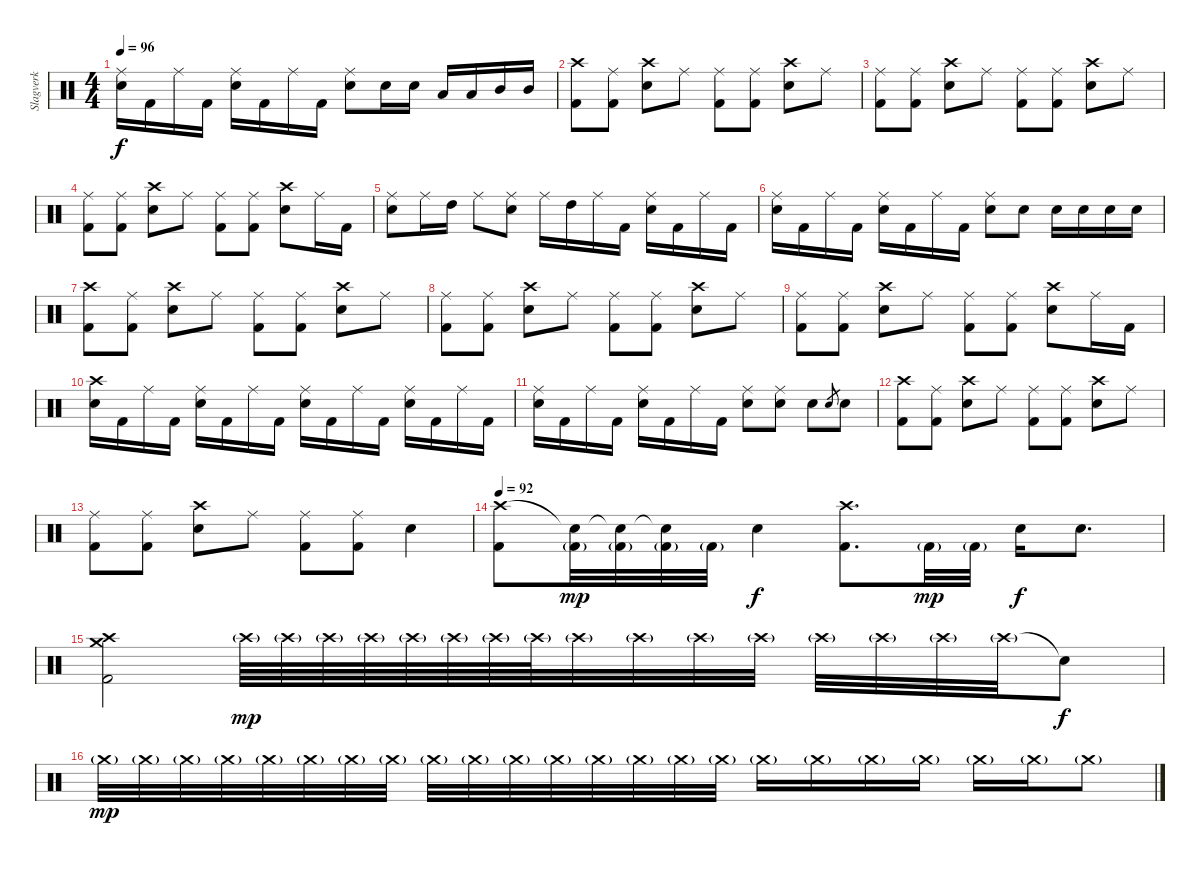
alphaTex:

\track ("Slagverk" "Slagverk") {instrument percussion}
\staff {score}
\articulation defaults
\ts (4 4)
\tempo 96
\clef neutral
\ks c
("Ride (middle)" "Electric Snare (hit)").16{dy f} "Kick (hit) 2".16 "Ride (middle)".16 "Kick (hit) 2".16 ("Ride (middle)" "Electric Snare (hit)").16 "Kick (hit) 2".16 "Ride (middle)".16 "Kick (hit) 2".16 ("Ride (middle)" "Electric Snare (hit)").8 "Electric Snare (hit)".16 "Electric Snare (hit)".16 "Low Tom (hit)".16 "Low Tom (hit)".16 "Mid Tom (hit)".16 "Mid Tom (hit)".16 |
("Crash high (hit)" "Kick (hit) 2").8 ("Ride (middle)" "Kick (hit) 2").8 ("Crash high (hit)" "Electric Snare (hit)").8 "Ride (middle)".8 ("Ride (middle)" "Kick (hit) 2").8 ("Ride (middle)" "Kick (hit) 2").8 ("Crash high (hit)" "Electric Snare (hit)").8 "Ride (middle)".8 |
("Ride (middle)" "Kick (hit) 2").8 ("Ride (middle)" "Kick (hit) 2").8 ("Crash high (hit)" "Electric Snare (hit)").8 "Ride (middle)".8 ("Ride (middle)" "Kick (hit) 2").8 ("Ride (middle)" "Kick (hit) 2").8 ("Crash high (hit)" "Electric Snare (hit)").8 "Ride (middle)".8 |
("Ride (middle)" "Kick (hit) 2").8 ("Ride (middle)" "Kick (hit) 2").8 ("Crash high (hit)" "Electric Snare (hit)").8 "Ride (middle)".8 ("Ride (middle)" "Kick (hit) 2").8 ("Ride (middle)" "Kick (hit) 2").8 ("Crash high (hit)" "Electric Snare (hit)").8 "Ride (middle)".16 "Kick (hit) 2".16 |
("Ride (middle)" "Electric Snare (hit)").8 "Ride (middle)".16 "High Tom (hit)".16 "Ride (middle)".8 ("Ride (middle)" "Electric Snare (hit)").8 "Ride (middle)".16 "High Tom (hit)".16 "Ride (middle)".16 "Kick (hit) 2".16 ("Ride (middle)" "Electric Snare (hit)").16 "Kick (hit) 2".16 "Ride (middle)".16 "Kick (hit) 2".16 |
("Ride (middle)" "Electric Snare (hit)").16 "Kick (hit) 2".16 "Ride (middle)".16 "Kick (hit) 2".16 ("Ride (middle)" "Electric Snare (hit)").16 "Kick (hit) 2".16 "Ride (middle)".16 "Kick (hit) 2".16 ("Ride (middle)" "Electric Snare (hit)").8 "Electric Snare (hit)".8 "Electric Snare (hit)".16 "Electric Snare (hit)".16 "Electric Snare (hit)".16 "Electric Snare (hit)".16 |
("Crash high (hit)" "Kick (hit) 2").8 ("Ride (middle)" "Kick (hit) 2").8 ("Crash high (hit)" "Electric Snare (hit)").8 "Ride (middle)".8 ("Ride (middle)" "Kick (hit) 2").8 ("Ride (middle)" "Kick (hit) 2").8 ("Crash high (hit)" "Electric Snare (hit)").8 "Ride (middle)".8 |
("Ride (middle)" "Kick (hit) 2").8 ("Ride (middle)" "Kick (hit) 2").8 ("Crash high (hit)" "Electric Snare (hit)").8 "Ride (middle)".8 ("Ride (middle)" "Kick (hit) 2").8 ("Ride (middle)" "Kick (hit) 2").8 ("Crash high (hit)" "Electric Snare (hit)").8 "Ride (middle)".8 |
("Ride (middle)" "Kick (hit) 2").8 ("Ride (middle)" "Kick (hit) 2").8 ("Crash high (hit)" "Electric Snare (hit)").8 "Ride (middle)".8 ("Ride (middle)" "Kick (hit) 2").8 ("Ride (middle)" "Kick (hit) 2").8 ("Crash high (hit)" "Electric Snare (hit)").8 "Ride (middle)".16 "Kick (hit) 2".16 |
("Crash high (hit)" "Electric Snare (hit)").16 "Kick (hit) 2".16 "Ride (middle)".16 "Kick (hit) 2".16 ("Ride (middle)" "Electric Snare (hit)").16 "Kick (hit) 2".16 "Ride (middle)".16 "Kick (hit) 2".16 ("Ride (middle)" "Electric Snare (hit)").16 "Kick (hit) 2".16 "Ride (middle)".16 "Kick (hit) 2".16 ("Ride (middle)" "Electric Snare (hit)").16 "Kick (hit) 2".16 "Ride (middle)".16 "Kick (hit) 2".16 |
("Ride (middle)" "Electric Snare (hit)").16 "Kick (hit) 2".16 "Ride (middle)".16 "Kick (hit) 2".16 ("Ride (middle)" "Electric Snare (hit)").16 "Kick (hit) 2".16 "Ride (middle)".16 "Kick (hit) 2".16 ("Ride (middle)" "Electric Snare (hit)").8 ("Ride (middle)" "Electric Snare (hit)").8 "Electric Snare (hit)".8 "Electric Snare (hit)".8{gr} "Electric Snare (hit)".8 |
("Crash high (hit)" "Kick (hit) 2").8 ("Ride (middle)" "Kick (hit) 2").8 ("Crash high (hit)" "Electric Snare (hit)").8 "Ride (middle)".8 ("Ride (middle)" "Kick (hit) 2").8 ("Ride (middle)" "Kick (hit) 2").8 ("Crash high (hit)" "Electric Snare (hit)").8 "Ride (middle)".8 |
("Ride (middle)" "Kick (hit) 2").8 ("Ride (middle)" "Kick (hit) 2").8 ("Crash high (hit)" "Electric Snare (hit)").8 "Ride (middle)".8 ("Ride (middle)" "Kick (hit) 2").8 ("Ride (middle)" "Kick (hit) 2").8 "Electric Snare (hit)".4 |
\tempo 92
("Crash high (hit)" "Kick (hit) 2").8 ("Snare (hit)"{t} "Kick (hit) 2"{g}).32{dy mp} ("Snare (hit)"{t} "Kick (hit) 2"{g}).32 ("Snare (hit)"{t} "Kick (hit) 2"{g}).32 "Kick (hit) 2"{g}.32 "Electric Snare (hit)".4{dy f} ("Crash high (hit)" "Kick (hit) 2").8{d} "Kick (hit) 2"{g}.32{dy mp} "Kick (hit) 2"{g}.32 "Electric Snare (hit)".16{dy f} "Electric Snare (hit)".8{d} |
("Crash medium (hit)" "Crash high (hit)" "Kick (hit) 2").2 "Crash high (hit)"{g}.64{dy mp} "Crash high (hit)"{g}.64 "Crash high (hit)"{g}.64 "Crash high (hit)"{g}.64 "Crash high (hit)"{g}.64 "Crash high (hit)"{g}.64 "Crash high (hit)"{g}.64 "Crash high (hit)"{g}.64 "Crash high (hit)"{g}.32 "Crash high (hit)"{g}.32 "Crash high (hit)"{g}.32 "Crash high (hit)"{g}.32 "Crash high (hit)"{g}.32 "Crash high (hit)"{g}.32 "Crash high (hit)"{g}.32 "Crash high (hit)"{g}.32 "Snare (hit)"{t}.8{dy f} |
"Crash medium (hit)"{g}.32{dy mp} "Crash medium (hit)"{g}.32 "Crash medium (hit)"{g}.32 "Crash medium (hit)"{g}.32 "Crash medium (hit)"{g}.32 "Crash medium (hit)"{g}.32 "Crash medium (hit)"{g}.32 "Crash medium (hit)"{g}.32 "Crash medium (hit)"{g}.32 "Crash medium (hit)"{g}.32 "Crash medium (hit)"{g}.32 "Crash medium (hit)"{g}.32 "Crash medium (hit)"{g}.32 "Crash medium (hit)"{g}.32 "Crash medium (hit)"{g}.32 "Crash medium (hit)"{g}.32 "Crash medium (hit)"{g}.16 "Crash medium (hit)"{g}.16 "Crash medium (hit)"{g}.16 "Crash medium (hit)"{g}.16 "Crash medium (hit)"{g}.16 "Crash medium (hit)"{g}.16 "Crash medium (hit)"{g}.8
